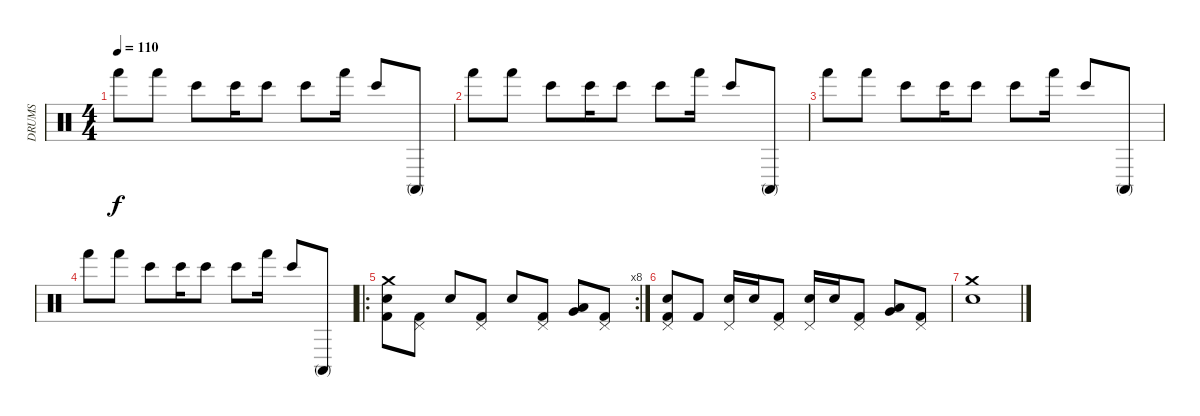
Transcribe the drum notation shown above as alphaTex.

\track ("DRUMS" "DRUMS") {instrument percussion}
\staff {score}
\articulation defaults
\ts (4 4)
\tempo 110
\clef neutral
\ks c "Hand (hit)".8{dy f} "Hand (hit)".8 "Bongo High (hit)".8 "Bongo High (hit)".16 "Bongo High (hit)".8 "Bongo High (hit)".8 "Hand (hit)".16 "Bongo High (hit)".8 "Conga high (mute)".8
|
"Hand (hit)".8 "Hand (hit)".8 "Bongo High (hit)".8 "Bongo High (hit)".16 "Bongo High (hit)".8 "Bongo High (hit)".8 "Hand (hit)".16 "Bongo High (hit)".8 "Conga high (mute)".8 |
"Hand (hit)".8 "Hand (hit)".8 "Bongo High (hit)".8 "Bongo High (hit)".16 "Bongo High (hit)".8 "Bongo High (hit)".8 "Hand (hit)".16 "Bongo High (hit)".8 "Conga high (mute)".8 |
"Hand (hit)".8 "Hand (hit)".8 "Bongo High (hit)".8 "Bongo High (hit)".16 "Bongo High (hit)".8 "Bongo High (hit)".8 "Hand (hit)".16 "Bongo High (hit)".8 "Conga high (mute)".8 |
\ro
\rc 8
("Electric Snare (hit)" "Kick (hit) 2" "Crash medium (hit)").8 ("Kick (hit) 2" "Pedal Hi-Hat (hit)").8 "Electric Snare (hit)".8 ("Kick (hit) 2" "Pedal Hi-Hat (hit)").8 "Electric Snare (hit)".8 ("Kick (hit) 2" "Pedal Hi-Hat (hit)").8 ("Very Low Tom (hit)" "Low Tom (hit)").8 ("Kick (hit) 2" "Pedal Hi-Hat (hit)").8 |
("Electric Snare (hit)" "Kick (hit) 2" "Pedal Hi-Hat (hit)").8 "Kick (hit) 2".8 ("Electric Snare (hit)" "Pedal Hi-Hat (hit)").16 "Electric Snare (hit)".16 ("Kick (hit) 2" "Pedal Hi-Hat (hit)").8 ("Electric Snare (hit)" "Pedal Hi-Hat (hit)").16 "Electric Snare (hit)".16 ("Kick (hit) 2" "Pedal Hi-Hat (hit)").8 ("Very Low Tom (hit)" "Low Tom (hit)").8 ("Kick (hit) 2" "Pedal Hi-Hat (hit)").8 |
("Electric Snare (hit)" "Crash medium (hit)").1
